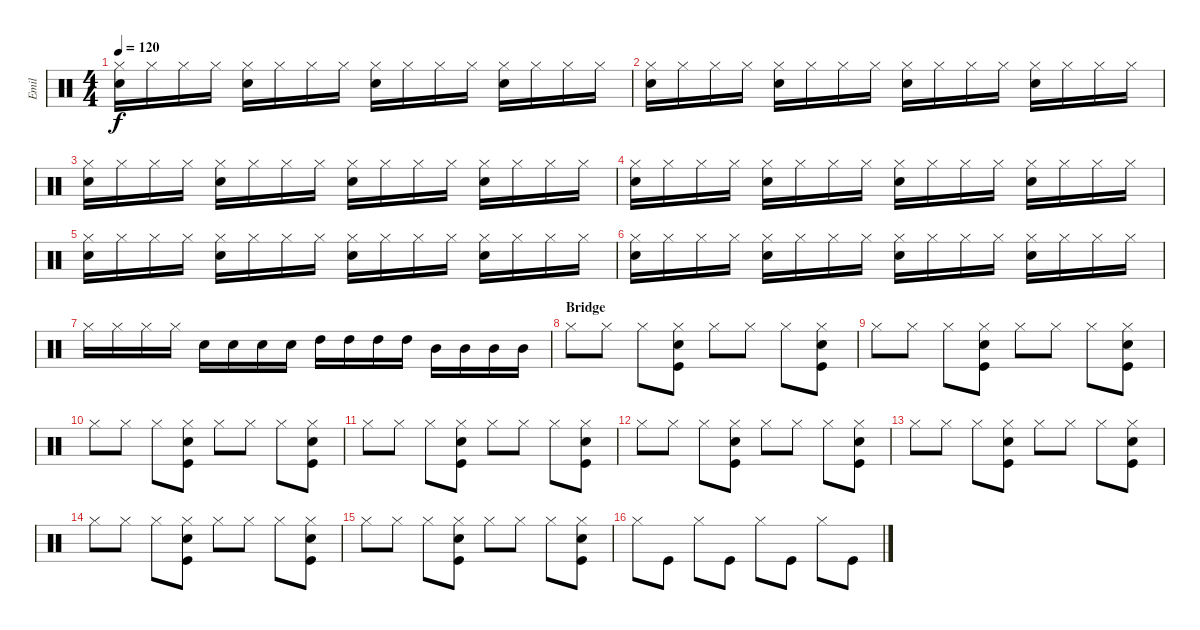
\track ("Emil" "Emil") {instrument percussion}
\staff {score}
\articulation defaults
\ts (4 4)
\tempo 120
\clef neutral
\ks c
("Hi-Hat (closed)" "Electric Snare (hit)").16{dy f} "Hi-Hat (closed)".16 "Hi-Hat (closed)".16 "Hi-Hat (closed)".16 ("Hi-Hat (closed)" "Electric Snare (hit)").16 "Hi-Hat (closed)".16 "Hi-Hat (closed)".16 "Hi-Hat (closed)".16 ("Hi-Hat (closed)" "Electric Snare (hit)").16 "Hi-Hat (closed)".16 "Hi-Hat (closed)".16 "Hi-Hat (closed)".16 ("Hi-Hat (closed)" "Electric Snare (hit)").16 "Hi-Hat (closed)".16 "Hi-Hat (closed)".16 "Hi-Hat (closed)".16 |
("Hi-Hat (closed)" "Electric Snare (hit)").16 "Hi-Hat (closed)".16 "Hi-Hat (closed)".16 "Hi-Hat (closed)".16 ("Hi-Hat (closed)" "Electric Snare (hit)").16 "Hi-Hat (closed)".16 "Hi-Hat (closed)".16 "Hi-Hat (closed)".16 ("Hi-Hat (closed)" "Electric Snare (hit)").16 "Hi-Hat (closed)".16 "Hi-Hat (closed)".16 "Hi-Hat (closed)".16 ("Hi-Hat (closed)" "Electric Snare (hit)").16 "Hi-Hat (closed)".16 "Hi-Hat (closed)".16 "Hi-Hat (closed)".16 |
("Hi-Hat (closed)" "Electric Snare (hit)").16 "Hi-Hat (closed)".16 "Hi-Hat (closed)".16 "Hi-Hat (closed)".16 ("Hi-Hat (closed)" "Electric Snare (hit)").16 "Hi-Hat (closed)".16 "Hi-Hat (closed)".16 "Hi-Hat (closed)".16 ("Hi-Hat (closed)" "Electric Snare (hit)").16 "Hi-Hat (closed)".16 "Hi-Hat (closed)".16 "Hi-Hat (closed)".16 ("Hi-Hat (closed)" "Electric Snare (hit)").16 "Hi-Hat (closed)".16 "Hi-Hat (closed)".16 "Hi-Hat (closed)".16 |
("Hi-Hat (closed)" "Electric Snare (hit)").16 "Hi-Hat (closed)".16 "Hi-Hat (closed)".16 "Hi-Hat (closed)".16 ("Hi-Hat (closed)" "Electric Snare (hit)").16 "Hi-Hat (closed)".16 "Hi-Hat (closed)".16 "Hi-Hat (closed)".16 ("Hi-Hat (closed)" "Electric Snare (hit)").16 "Hi-Hat (closed)".16 "Hi-Hat (closed)".16 "Hi-Hat (closed)".16 ("Hi-Hat (closed)" "Electric Snare (hit)").16 "Hi-Hat (closed)".16 "Hi-Hat (closed)".16 "Hi-Hat (closed)".16 |
("Hi-Hat (closed)" "Electric Snare (hit)").16 "Hi-Hat (closed)".16 "Hi-Hat (closed)".16 "Hi-Hat (closed)".16 ("Hi-Hat (closed)" "Electric Snare (hit)").16 "Hi-Hat (closed)".16 "Hi-Hat (closed)".16 "Hi-Hat (closed)".16 ("Hi-Hat (closed)" "Electric Snare (hit)").16 "Hi-Hat (closed)".16 "Hi-Hat (closed)".16 "Hi-Hat (closed)".16 ("Hi-Hat (closed)" "Electric Snare (hit)").16 "Hi-Hat (closed)".16 "Hi-Hat (closed)".16 "Hi-Hat (closed)".16 |
("Hi-Hat (closed)" "Electric Snare (hit)").16 "Hi-Hat (closed)".16 "Hi-Hat (closed)".16 "Hi-Hat (closed)".16 ("Hi-Hat (closed)" "Electric Snare (hit)").16 "Hi-Hat (closed)".16 "Hi-Hat (closed)".16 "Hi-Hat (closed)".16 ("Hi-Hat (closed)" "Electric Snare (hit)").16 "Hi-Hat (closed)".16 "Hi-Hat (closed)".16 "Hi-Hat (closed)".16 ("Hi-Hat (closed)" "Electric Snare (hit)").16 "Hi-Hat (closed)".16 "Hi-Hat (closed)".16 "Hi-Hat (closed)".16 |
"Hi-Hat (closed)".16 "Hi-Hat (closed)".16 "Hi-Hat (closed)".16 "Hi-Hat (closed)".16 "Electric Snare (hit)".16 "Electric Snare (hit)".16 "Electric Snare (hit)".16 "Electric Snare (hit)".16 "High Tom (hit)".16 "High Tom (hit)".16 "High Tom (hit)".16 "High Tom (hit)".16 "Mid Tom (hit)".16 "Mid Tom (hit)".16 "Mid Tom (hit)".16 "Mid Tom (hit)".16 |
\section ("" "Bridge")
"Hi-Hat (closed)".8 "Hi-Hat (closed)".8 "Hi-Hat (closed)".8 ("Electric Snare (hit)" "Hi-Hat (closed)" "Kick (hit)").8 "Hi-Hat (closed)".8 "Hi-Hat (closed)".8 "Hi-Hat (closed)".8 ("Electric Snare (hit)" "Hi-Hat (closed)" "Kick (hit)").8 |
"Hi-Hat (closed)".8 "Hi-Hat (closed)".8 "Hi-Hat (closed)".8 ("Electric Snare (hit)" "Hi-Hat (closed)" "Kick (hit)").8 "Hi-Hat (closed)".8 "Hi-Hat (closed)".8 "Hi-Hat (closed)".8 ("Electric Snare (hit)" "Hi-Hat (closed)" "Kick (hit)").8 |
"Hi-Hat (closed)".8 "Hi-Hat (closed)".8 "Hi-Hat (closed)".8 ("Electric Snare (hit)" "Hi-Hat (closed)" "Kick (hit)").8 "Hi-Hat (closed)".8 "Hi-Hat (closed)".8 "Hi-Hat (closed)".8 ("Electric Snare (hit)" "Hi-Hat (closed)" "Kick (hit)").8 |
"Hi-Hat (closed)".8 "Hi-Hat (closed)".8 "Hi-Hat (closed)".8 ("Electric Snare (hit)" "Hi-Hat (closed)" "Kick (hit)").8 "Hi-Hat (closed)".8 "Hi-Hat (closed)".8 "Hi-Hat (closed)".8 ("Electric Snare (hit)" "Hi-Hat (closed)" "Kick (hit)").8 |
"Hi-Hat (closed)".8 "Hi-Hat (closed)".8 "Hi-Hat (closed)".8 ("Electric Snare (hit)" "Hi-Hat (closed)" "Kick (hit)").8 "Hi-Hat (closed)".8 "Hi-Hat (closed)".8 "Hi-Hat (closed)".8 ("Electric Snare (hit)" "Hi-Hat (closed)" "Kick (hit)").8 |
"Hi-Hat (closed)".8 "Hi-Hat (closed)".8 "Hi-Hat (closed)".8 ("Electric Snare (hit)" "Hi-Hat (closed)" "Kick (hit)").8 "Hi-Hat (closed)".8 "Hi-Hat (closed)".8 "Hi-Hat (closed)".8 ("Electric Snare (hit)" "Hi-Hat (closed)" "Kick (hit)").8 |
"Hi-Hat (closed)".8 "Hi-Hat (closed)".8 "Hi-Hat (closed)".8 ("Electric Snare (hit)" "Hi-Hat (closed)" "Kick (hit)").8 "Hi-Hat (closed)".8 "Hi-Hat (closed)".8 "Hi-Hat (closed)".8 ("Electric Snare (hit)" "Hi-Hat (closed)" "Kick (hit)").8 |
"Hi-Hat (closed)".8 "Hi-Hat (closed)".8 "Hi-Hat (closed)".8 ("Electric Snare (hit)" "Hi-Hat (closed)" "Kick (hit)").8 "Hi-Hat (closed)".8 "Hi-Hat (closed)".8 "Hi-Hat (closed)".8 ("Electric Snare (hit)" "Hi-Hat (closed)" "Kick (hit)").8 |
"Hi-Hat (closed)".8 "Kick (hit)".8 "Hi-Hat (closed)".8 "Kick (hit)".8 "Hi-Hat (closed)".8 "Kick (hit)".8 "Hi-Hat (closed)".8 "Kick (hit)".8
